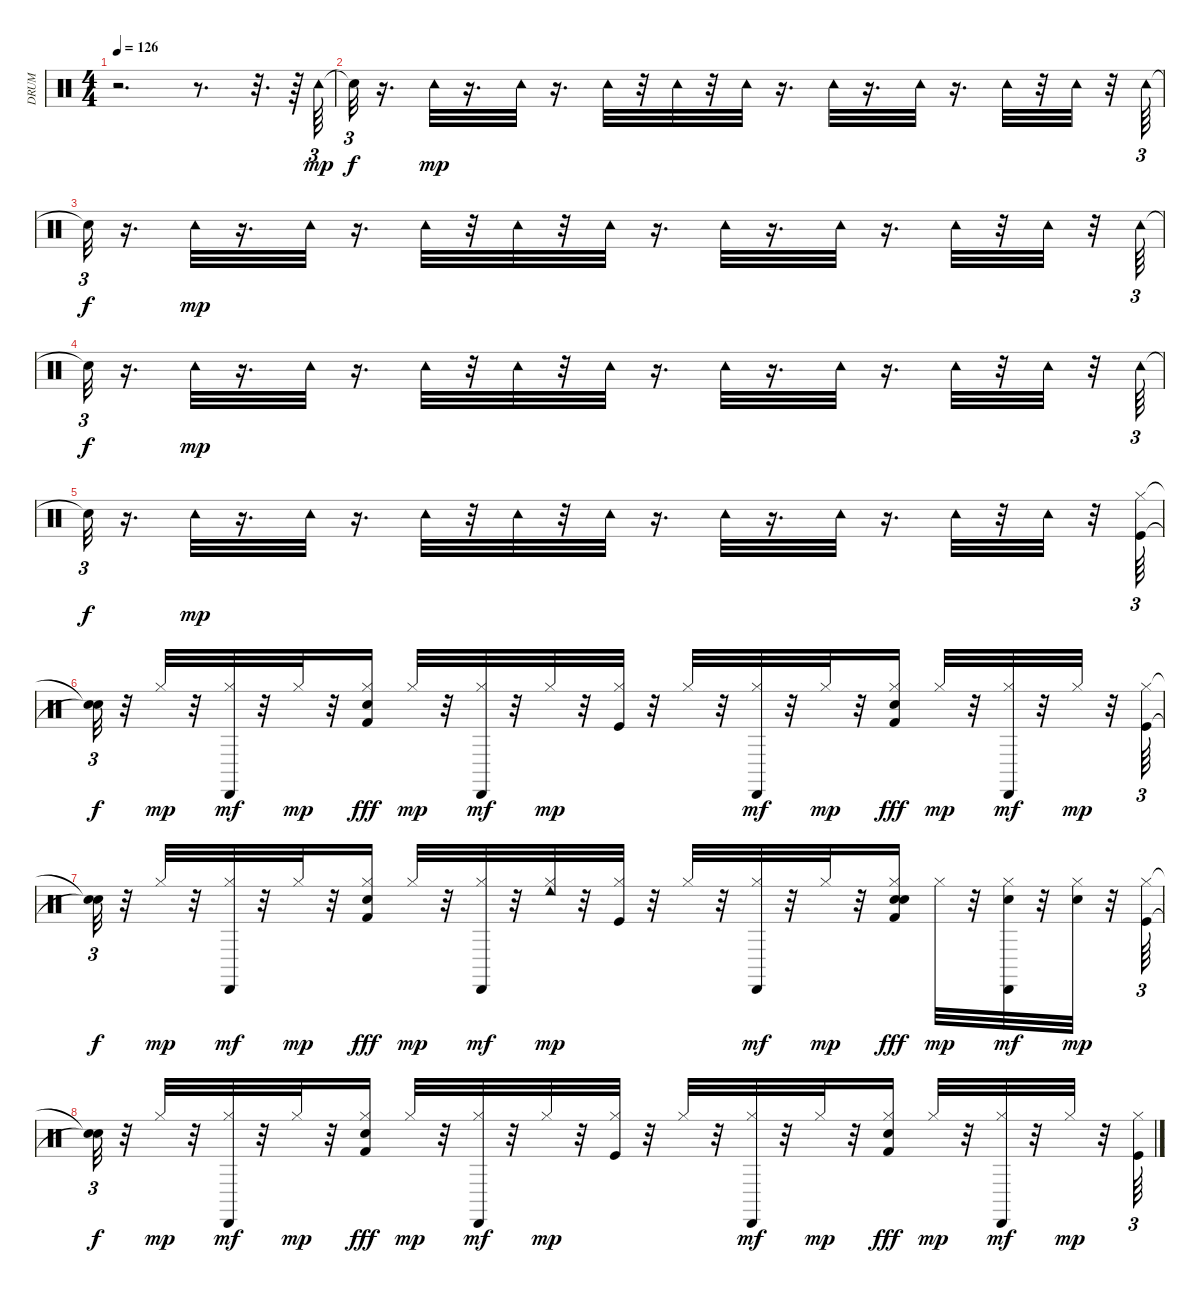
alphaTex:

\track ("DRUM" "DRUM") {instrument percussion}
\staff {score}
\articulation defaults
\ts (4 4)
\tempo 126
\clef neutral
\ks c
r.2{d dy mp} r.8{d} r.32{d} r.64 "Tambourine (hit)".64{tu (3 2)} |
"Snare (hit)"{t}.32{tu (3 2) dy f} r.16{d} "Tambourine (hit)".32{dy mp} r.16{d} "Tambourine (hit)".32 r.16{d} "Tambourine (hit)".32 r.32 "Tambourine (hit)".32 r.32 "Tambourine (hit)".32 r.16{d} "Tambourine (hit)".32 r.16{d} "Tambourine (hit)".32 r.16{d} "Tambourine (hit)".32 r.32 "Tambourine (hit)".32 r.32 "Tambourine (hit)".64{tu (3 2)} |
"Snare (hit)"{t}.32{tu (3 2) dy f} r.16{d} "Tambourine (hit)".32{dy mp} r.16{d} "Tambourine (hit)".32 r.16{d} "Tambourine (hit)".32 r.32 "Tambourine (hit)".32 r.32 "Tambourine (hit)".32 r.16{d} "Tambourine (hit)".32 r.16{d} "Tambourine (hit)".32 r.16{d} "Tambourine (hit)".32 r.32 "Tambourine (hit)".32 r.32 "Tambourine (hit)".64{tu (3 2)} |
"Snare (hit)"{t}.32{tu (3 2) dy f} r.16{d} "Tambourine (hit)".32{dy mp} r.16{d} "Tambourine (hit)".32 r.16{d} "Tambourine (hit)".32 r.32 "Tambourine (hit)".32 r.32 "Tambourine (hit)".32 r.16{d} "Tambourine (hit)".32 r.16{d} "Tambourine (hit)".32 r.16{d} "Tambourine (hit)".32 r.32 "Tambourine (hit)".32 r.32 "Tambourine (hit)".64{tu (3 2)} |
"Snare (hit)"{t}.32{tu (3 2) dy f} r.16{d} "Tambourine (hit)".32{dy mp} r.16{d} "Tambourine (hit)".32 r.16{d} "Tambourine (hit)".32 r.32 "Tambourine (hit)".32 r.32 "Tambourine (hit)".32 r.16{d} "Tambourine (hit)".32 r.16{d} "Tambourine (hit)".32 r.16{d} "Tambourine (hit)".32 r.32 "Tambourine (hit)".32 r.32 ("Kick (hit)" "Hi-Hat (closed)").64{tu (3 2)} |
("Snare (hit)"{t} "Snare (hit)"{t}).32{tu (3 2) dy f} r.32 "Hi-Hat (closed)".32{dy mp} r.32 ("Hi-Hat (closed)" "Cabasa (hit)").32{dy mf} r.32 "Hi-Hat (closed)".32{dy mp} r.32 ("Snare (hit) 2" "Hi-Hat (closed)" "Kick (hit) 2").16{dy fff} "Hi-Hat (closed)".32{dy mp} r.32 ("Hi-Hat (closed)" "Cabasa (hit)").32{dy mf} r.32 "Hi-Hat (closed)".32{dy mp} r.32 ("Kick (hit)" "Hi-Hat (closed)").32 r.32 "Hi-Hat (closed)".32 r.32 ("Hi-Hat (closed)" "Cabasa (hit)").32{dy mf} r.32 "Hi-Hat (closed)".32{dy mp} r.32 ("Snare (hit) 2" "Hi-Hat (closed)" "Kick (hit) 2").16{dy fff} "Hi-Hat (closed)".32{dy mp} r.32 ("Hi-Hat (closed)" "Cabasa (hit)").32{dy mf} r.32 "Hi-Hat (closed)".32{dy mp} r.32 ("Kick (hit)" "Hi-Hat (closed)").64{tu (3 2)} |
("Snare (hit)"{t} "Snare (hit)"{t}).32{tu (3 2) dy f} r.32 "Hi-Hat (closed)".32{dy mp} r.32 ("Hi-Hat (closed)" "Cabasa (hit)").32{dy mf} r.32 "Hi-Hat (closed)".32{dy mp} r.32 ("Snare (hit) 2" "Hi-Hat (closed)" "Kick (hit) 2").16{dy fff} "Hi-Hat (closed)".32{dy mp} r.32 ("Hi-Hat (closed)" "Cabasa (hit)").32{dy mf} r.32 ("Cowbell low (hit)" "Hi-Hat (closed)").32{dy mp} r.32 ("Kick (hit)" "Hi-Hat (closed)").32 r.32 "Hi-Hat (closed)".32 r.32 ("Hi-Hat (closed)" "Cabasa (hit)").32{dy mf} r.32 "Hi-Hat (closed)".32{dy mp} r.32 ("Hand Clap (hit)" "Snare (hit) 2" "Hi-Hat (closed)" "Kick (hit) 2").16{dy fff} "Hi-Hat (closed)".32{dy mp} r.32 ("Hand Clap (hit)" "Hi-Hat (closed)" "Cabasa (hit)").32{dy mf} r.32 ("Hand Clap (hit)" "Hi-Hat (closed)").32{dy mp} r.32 ("Kick (hit)" "Hi-Hat (closed)").64{tu (3 2)} |
("Snare (hit)"{t} "Snare (hit)"{t}).32{tu (3 2) dy f} r.32 "Hi-Hat (closed)".32{dy mp} r.32 ("Hi-Hat (closed)" "Cabasa (hit)").32{dy mf} r.32 "Hi-Hat (closed)".32{dy mp} r.32 ("Snare (hit) 2" "Hi-Hat (closed)" "Kick (hit) 2").16{dy fff} "Hi-Hat (closed)".32{dy mp} r.32 ("Hi-Hat (closed)" "Cabasa (hit)").32{dy mf} r.32 "Hi-Hat (closed)".32{dy mp} r.32 ("Kick (hit)" "Hi-Hat (closed)").32 r.32 "Hi-Hat (closed)".32 r.32 ("Hi-Hat (closed)" "Cabasa (hit)").32{dy mf} r.32 "Hi-Hat (closed)".32{dy mp} r.32 ("Snare (hit) 2" "Hi-Hat (closed)" "Kick (hit) 2").16{dy fff} "Hi-Hat (closed)".32{dy mp} r.32 ("Hi-Hat (closed)" "Cabasa (hit)").32{dy mf} r.32 "Hi-Hat (closed)".32{dy mp} r.32 ("Kick (hit)" "Hi-Hat (closed)").64{tu (3 2)}
